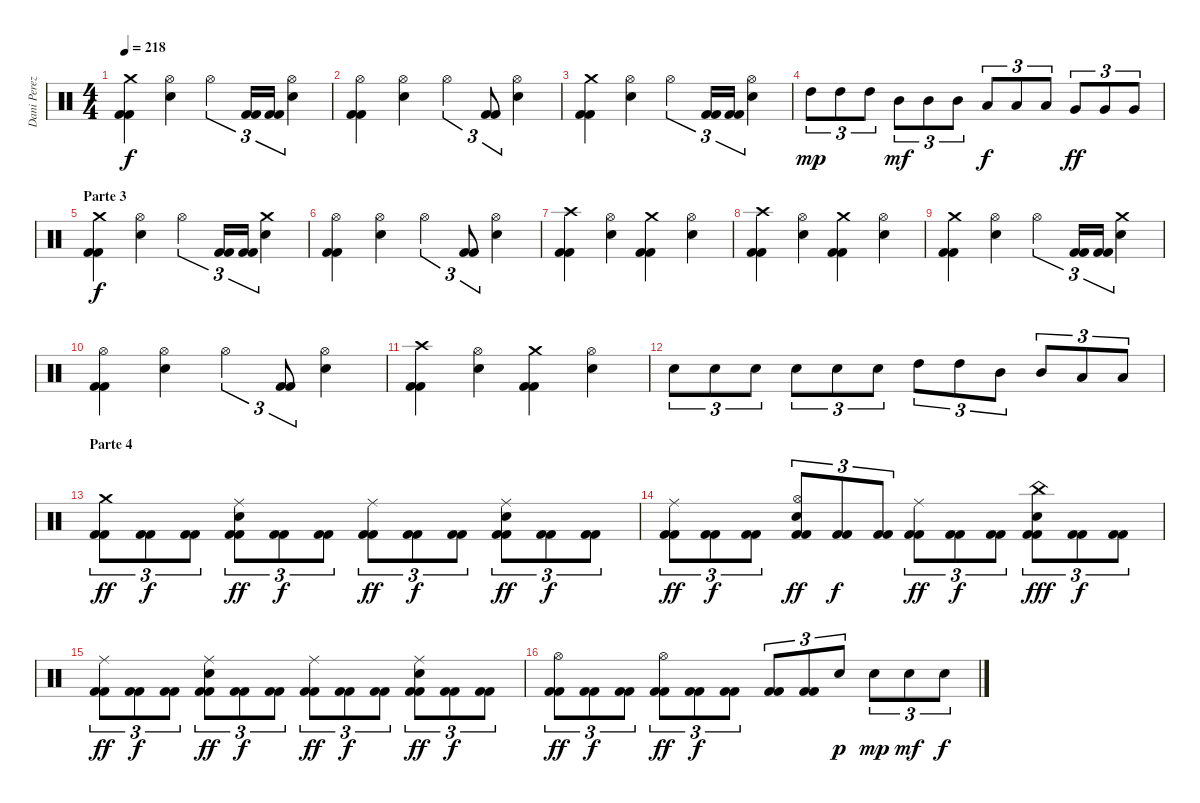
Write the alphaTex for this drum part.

\track ("Dani Perez" "Dani Perez") {instrument percussion}
\staff {score}
\articulation defaults
\ts (4 4)
\tempo 218
\clef neutral
\ks c
("Crash medium (hit)" "Kick (hit) 2" "Kick (hit) 2").4{dy f} ("Hi-Hat (open)" "Snare (hit) 2").4 "Hi-Hat (open)".4{tu (3 2)} ("Kick (hit) 2" "Kick (hit) 2").16{tu (3 2)} ("Kick (hit) 2" "Kick (hit) 2").16{tu (3 2)} ("Hi-Hat (open)" "Snare (hit) 2").4 |
("Hi-Hat (open)" "Kick (hit) 2" "Kick (hit) 2").4 ("Hi-Hat (open)" "Snare (hit) 2").4 "Hi-Hat (open)".4{tu (3 2)} ("Kick (hit) 2" "Kick (hit) 2").8{tu (3 2)} ("Hi-Hat (open)" "Snare (hit) 2").4 |
("Crash medium (hit)" "Kick (hit) 2" "Kick (hit) 2").4 ("Hi-Hat (open)" "Snare (hit) 2").4 "Hi-Hat (open)".4{tu (3 2)} ("Kick (hit) 2" "Kick (hit) 2").16{tu (3 2)} ("Kick (hit) 2" "Kick (hit) 2").16{tu (3 2)} ("Hi-Hat (open)" "Snare (hit) 2").4 |
"High Tom (hit)".8{tu (3 2) dy mp} "High Tom (hit)".8{tu (3 2)} "High Tom (hit)".8{tu (3 2)} "Mid Tom (hit)".8{tu (3 2) dy mf} "Mid Tom (hit)".8{tu (3 2)} "Mid Tom (hit)".8{tu (3 2)} "Low Tom (hit)".8{tu (3 2) dy f} "Low Tom (hit)".8{tu (3 2)} "Low Tom (hit)".8{tu (3 2)} "Very Low Tom (hit)".8{tu (3 2) dy ff} "Very Low Tom (hit)".8{tu (3 2)} "Very Low Tom (hit)".8{tu (3 2)} |
\section ("" "Parte 3")
("Crash medium (hit)" "Kick (hit) 2" "Kick (hit) 2").4{dy f} ("Hi-Hat (open)" "Snare (hit) 2").4 "Hi-Hat (open)".4{tu (3 2)} ("Kick (hit) 2" "Kick (hit) 2").16{tu (3 2)} ("Kick (hit) 2" "Kick (hit) 2").16{tu (3 2)} ("Crash medium (hit)" "Snare (hit) 2").4 |
("Hi-Hat (open)" "Kick (hit) 2" "Kick (hit) 2").4 ("Hi-Hat (open)" "Snare (hit) 2").4 "Hi-Hat (open)".4{tu (3 2)} ("Kick (hit) 2" "Kick (hit) 2").8{tu (3 2)} ("Hi-Hat (open)" "Snare (hit) 2").4 |
("Crash high (hit)" "Kick (hit) 2" "Kick (hit) 2").4 ("Hi-Hat (open)" "Snare (hit) 2").4 ("Crash medium (hit)" "Kick (hit) 2" "Kick (hit) 2").4 ("Hi-Hat (open)" "Snare (hit) 2").4 |
("Crash high (hit)" "Kick (hit) 2" "Kick (hit) 2").4 ("Hi-Hat (open)" "Snare (hit) 2").4 ("Crash medium (hit)" "Kick (hit) 2" "Kick (hit) 2").4 ("Hi-Hat (open)" "Snare (hit) 2").4 |
("Crash medium (hit)" "Kick (hit) 2" "Kick (hit) 2").4 ("Hi-Hat (open)" "Snare (hit) 2").4 "Hi-Hat (open)".4{tu (3 2)} ("Kick (hit) 2" "Kick (hit) 2").16{tu (3 2)} ("Kick (hit) 2" "Kick (hit) 2").16{tu (3 2)} ("Crash medium (hit)" "Snare (hit) 2").4 |
("Hi-Hat (open)" "Kick (hit) 2" "Kick (hit) 2").4 ("Hi-Hat (open)" "Snare (hit) 2").4 "Hi-Hat (open)".4{tu (3 2)} ("Kick (hit) 2" "Kick (hit) 2").8{tu (3 2)} ("Hi-Hat (open)" "Snare (hit) 2").4 |
("Crash high (hit)" "Kick (hit) 2" "Kick (hit) 2").4 ("Hi-Hat (open)" "Snare (hit) 2").4 ("Crash medium (hit)" "Kick (hit) 2" "Kick (hit) 2").4 ("Hi-Hat (open)" "Snare (hit) 2").4 |
"Snare (hit) 2".8{tu (3 2)} "Snare (hit) 2".8{tu (3 2)} "Snare (hit) 2".8{tu (3 2)} "Snare (hit) 2".8{tu (3 2)} "Snare (hit) 2".8{tu (3 2)} "Snare (hit) 2".8{tu (3 2)} "High Tom (hit)".8{tu (3 2)} "High Tom (hit)".8{tu (3 2)} "Mid Tom (hit)".8{tu (3 2)} "Mid Tom (hit)".8{tu (3 2)} "Low Tom (hit)".8{tu (3 2)} "Low Tom (hit)".8{tu (3 2)} |
\section ("" "Parte 4")
("Crash medium (hit)" "Kick (hit) 2" "Kick (hit) 2").8{tu (3 2) dy ff} ("Kick (hit) 2" "Kick (hit) 2").8{tu (3 2) dy f} ("Kick (hit) 2" "Kick (hit) 2").8{tu (3 2)} ("Ride (middle)" "Snare (hit) 2" "Kick (hit) 2" "Kick (hit) 2").8{tu (3 2) dy ff} ("Kick (hit) 2" "Kick (hit) 2").8{tu (3 2) dy f} ("Kick (hit) 2" "Kick (hit) 2").8{tu (3 2)} ("Ride (middle)" "Kick (hit) 2" "Kick (hit) 2").8{tu (3 2) dy ff} ("Kick (hit) 2" "Kick (hit) 2").8{tu (3 2) dy f} ("Kick (hit) 2" "Kick (hit) 2").8{tu (3 2)} ("Ride (middle)" "Snare (hit) 2" "Kick (hit) 2" "Kick (hit) 2").8{tu (3 2) dy ff} ("Kick (hit) 2" "Kick (hit) 2").8{tu (3 2) dy f} ("Kick (hit) 2" "Kick (hit) 2").8{tu (3 2)} |
("Ride (middle)" "Kick (hit) 2" "Kick (hit) 2").8{tu (3 2) dy ff} ("Kick (hit) 2" "Kick (hit) 2").8{tu (3 2) dy f} ("Kick (hit) 2" "Kick (hit) 2").8{tu (3 2)} ("Hi-Hat (open)" "Snare (hit) 2" "Kick (hit) 2" "Kick (hit) 2").8{tu (3 2) dy ff} ("Kick (hit) 2" "Kick (hit) 2").8{tu (3 2) dy f} ("Kick (hit) 2" "Kick (hit) 2").8{tu (3 2)} ("Ride (middle)" "Kick (hit) 2" "Kick (hit) 2").8{tu (3 2) dy ff} ("Kick (hit) 2" "Kick (hit) 2").8{tu (3 2) dy f} ("Kick (hit) 2" "Kick (hit) 2").8{tu (3 2)} ("China (hit)" "Snare (hit) 2" "Kick (hit) 2" "Kick (hit) 2").8{tu (3 2) dy fff} ("Kick (hit) 2" "Kick (hit) 2").8{tu (3 2) dy f} ("Kick (hit) 2" "Kick (hit) 2").8{tu (3 2)} |
("Ride (middle)" "Kick (hit) 2" "Kick (hit) 2").8{tu (3 2) dy ff} ("Kick (hit) 2" "Kick (hit) 2").8{tu (3 2) dy f} ("Kick (hit) 2" "Kick (hit) 2").8{tu (3 2)} ("Ride (middle)" "Snare (hit) 2" "Kick (hit) 2" "Kick (hit) 2").8{tu (3 2) dy ff} ("Kick (hit) 2" "Kick (hit) 2").8{tu (3 2) dy f} ("Kick (hit) 2" "Kick (hit) 2").8{tu (3 2)} ("Ride (middle)" "Kick (hit) 2" "Kick (hit) 2").8{tu (3 2) dy ff} ("Kick (hit) 2" "Kick (hit) 2").8{tu (3 2) dy f} ("Kick (hit) 2" "Kick (hit) 2").8{tu (3 2)} ("Ride (middle)" "Snare (hit) 2" "Kick (hit) 2" "Kick (hit) 2").8{tu (3 2) dy ff} ("Kick (hit) 2" "Kick (hit) 2").8{tu (3 2) dy f} ("Kick (hit) 2" "Kick (hit) 2").8{tu (3 2)} |
("Hi-Hat (open)" "Kick (hit) 2" "Kick (hit) 2").8{tu (3 2) dy ff} ("Kick (hit) 2" "Kick (hit) 2").8{tu (3 2) dy f} ("Kick (hit) 2" "Kick (hit) 2").8{tu (3 2)} ("Hi-Hat (open)" "Kick (hit) 2" "Kick (hit) 2").8{tu (3 2) dy ff} ("Kick (hit) 2" "Kick (hit) 2").8{tu (3 2) dy f} ("Kick (hit) 2" "Kick (hit) 2").8{tu (3 2)} ("Kick (hit) 2" "Kick (hit) 2").8{tu (3 2)} ("Kick (hit) 2" "Kick (hit) 2").8{tu (3 2)} "Snare (hit) 2".8{tu (3 2) dy p} "Snare (hit) 2".8{tu (3 2) dy mp} "Snare (hit) 2".8{tu (3 2) dy mf} "Snare (hit) 2".8{tu (3 2) dy f}
